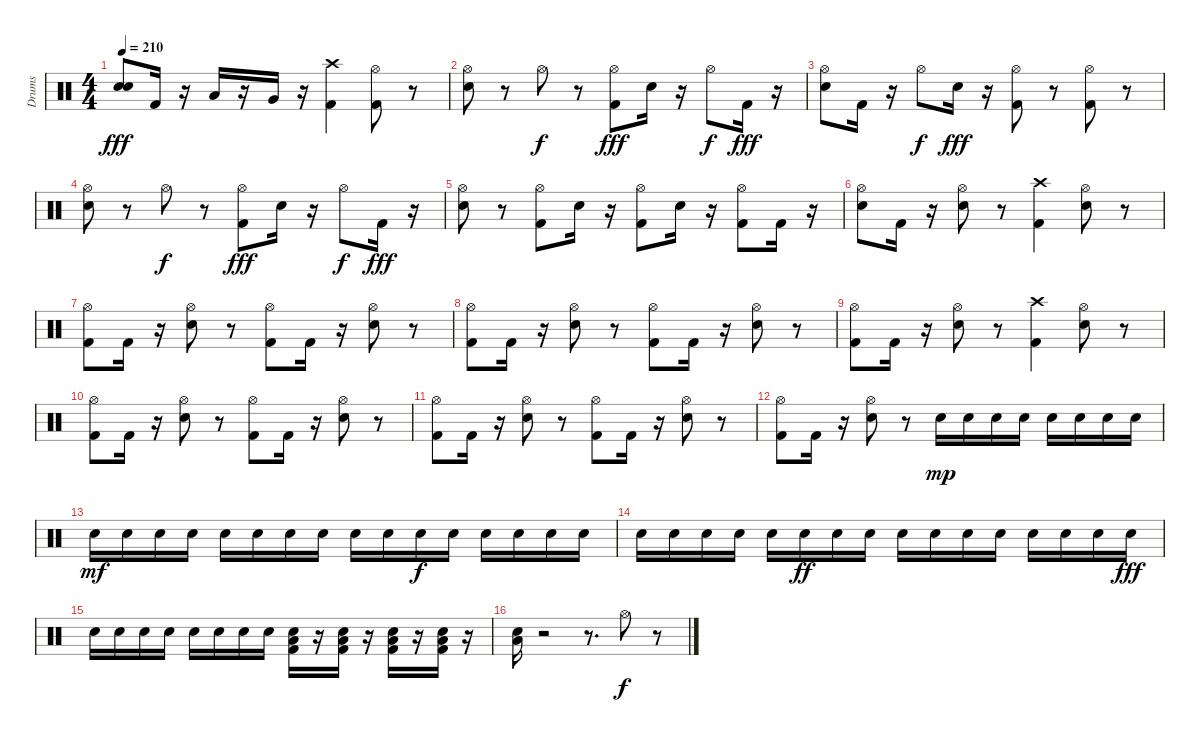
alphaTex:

\track ("Drums" "Drums") {instrument percussion}
\staff {score}
\articulation defaults
\ts (4 4)
\tempo 210
\clef neutral
\ks c
("Electric Snare (hit)" "Electric Snare (hit)").8{dy fff} "Kick (hit) 2".16 r.16 "Low Tom (hit)".16 r.16 "Very Low Tom (hit)".16 r.16 ("Kick (hit) 2" "Crash high (hit)").4 ("Kick (hit) 2" "Hi-Hat (open)").8 r.8 |
("Electric Snare (hit)" "Hi-Hat (open)").8 r.8 "Hi-Hat (open)".8{dy f} r.8 ("Kick (hit) 2" "Hi-Hat (open)").8{dy fff} "Electric Snare (hit)".16 r.16 "Hi-Hat (open)".8{dy f} "Kick (hit) 2".16{dy fff} r.16 |
("Electric Snare (hit)" "Hi-Hat (open)").8 "Kick (hit) 2".16 r.16 "Hi-Hat (open)".8{dy f} "Electric Snare (hit)".16{dy fff} r.16 ("Kick (hit) 2" "Hi-Hat (open)").8 r.8 ("Kick (hit) 2" "Hi-Hat (open)").8 r.8 |
("Electric Snare (hit)" "Hi-Hat (open)").8 r.8 "Hi-Hat (open)".8{dy f} r.8 ("Kick (hit) 2" "Hi-Hat (open)").8{dy fff} "Electric Snare (hit)".16 r.16 "Hi-Hat (open)".8{dy f} "Kick (hit) 2".16{dy fff} r.16 |
("Electric Snare (hit)" "Hi-Hat (open)").8 r.8 ("Kick (hit) 2" "Hi-Hat (open)").8 "Electric Snare (hit)".16 r.16 ("Kick (hit) 2" "Hi-Hat (open)").8 "Electric Snare (hit)".16 r.16 ("Kick (hit) 2" "Hi-Hat (open)").8 "Kick (hit) 2".16 r.16 |
("Electric Snare (hit)" "Hi-Hat (open)").8 "Kick (hit) 2".16 r.16 ("Electric Snare (hit)" "Hi-Hat (open)").8 r.8 ("Kick (hit) 2" "Crash high (hit)").4 ("Electric Snare (hit)" "Hi-Hat (open)").8 r.8 |
("Kick (hit) 2" "Hi-Hat (open)").8 "Kick (hit) 2".16 r.16 ("Electric Snare (hit)" "Hi-Hat (open)").8 r.8 ("Kick (hit) 2" "Hi-Hat (open)").8 "Kick (hit) 2".16 r.16 ("Electric Snare (hit)" "Hi-Hat (open)").8 r.8 |
("Kick (hit) 2" "Hi-Hat (open)").8 "Kick (hit) 2".16 r.16 ("Electric Snare (hit)" "Hi-Hat (open)").8 r.8 ("Kick (hit) 2" "Hi-Hat (open)").8 "Kick (hit) 2".16 r.16 ("Electric Snare (hit)" "Hi-Hat (open)").8 r.8 |
("Kick (hit) 2" "Hi-Hat (open)").8 "Kick (hit) 2".16 r.16 ("Electric Snare (hit)" "Hi-Hat (open)").8 r.8 ("Kick (hit) 2" "Crash high (hit)").4 ("Electric Snare (hit)" "Hi-Hat (open)").8 r.8 |
("Kick (hit) 2" "Hi-Hat (open)").8 "Kick (hit) 2".16 r.16 ("Electric Snare (hit)" "Hi-Hat (open)").8 r.8 ("Kick (hit) 2" "Hi-Hat (open)").8 "Kick (hit) 2".16 r.16 ("Electric Snare (hit)" "Hi-Hat (open)").8 r.8 |
("Kick (hit) 2" "Hi-Hat (open)").8 "Kick (hit) 2".16 r.16 ("Electric Snare (hit)" "Hi-Hat (open)").8 r.8 ("Kick (hit) 2" "Hi-Hat (open)").8 "Kick (hit) 2".16 r.16 ("Electric Snare (hit)" "Hi-Hat (open)").8 r.8 |
("Kick (hit) 2" "Hi-Hat (open)").8 "Kick (hit) 2".16 r.16 ("Electric Snare (hit)" "Hi-Hat (open)").8 r.8 "Electric Snare (hit)".16{dy mp} "Electric Snare (hit)".16 "Electric Snare (hit)".16 "Electric Snare (hit)".16 "Electric Snare (hit)".16 "Electric Snare (hit)".16 "Electric Snare (hit)".16 "Electric Snare (hit)".16 |
"Electric Snare (hit)".16{dy mf} "Electric Snare (hit)".16 "Electric Snare (hit)".16 "Electric Snare (hit)".16 "Electric Snare (hit)".16 "Electric Snare (hit)".16 "Electric Snare (hit)".16 "Electric Snare (hit)".16 "Electric Snare (hit)".16 "Electric Snare (hit)".16 "Electric Snare (hit)".16{dy f} "Electric Snare (hit)".16 "Electric Snare (hit)".16 "Electric Snare (hit)".16 "Electric Snare (hit)".16 "Electric Snare (hit)".16 |
"Electric Snare (hit)".16 "Electric Snare (hit)".16 "Electric Snare (hit)".16 "Electric Snare (hit)".16 "Electric Snare (hit)".16 "Electric Snare (hit)".16{dy ff} "Electric Snare (hit)".16 "Electric Snare (hit)".16 "Electric Snare (hit)".16 "Electric Snare (hit)".16 "Electric Snare (hit)".16 "Electric Snare (hit)".16 "Electric Snare (hit)".16 "Electric Snare (hit)".16 "Electric Snare (hit)".16 "Electric Snare (hit)".16{dy fff} |
"Electric Snare (hit)".16 "Electric Snare (hit)".16 "Electric Snare (hit)".16 "Electric Snare (hit)".16 "Electric Snare (hit)".16 "Electric Snare (hit)".16 "Electric Snare (hit)".16 "Electric Snare (hit)".16 ("Electric Snare (hit)" "Low Tom (hit)" "Kick (hit) 2").16 r.16 ("Electric Snare (hit)" "Low Tom (hit)" "Kick (hit) 2").16 r.16 ("Electric Snare (hit)" "Low Tom (hit)" "Kick (hit) 2").16 r.16 ("Electric Snare (hit)" "Low Tom (hit)" "Kick (hit) 2").16 r.16 |
("Electric Snare (hit)" "Low Tom (hit)").16 r.2 r.8{d} "Hi-Hat (open)".8{dy f} r.8
